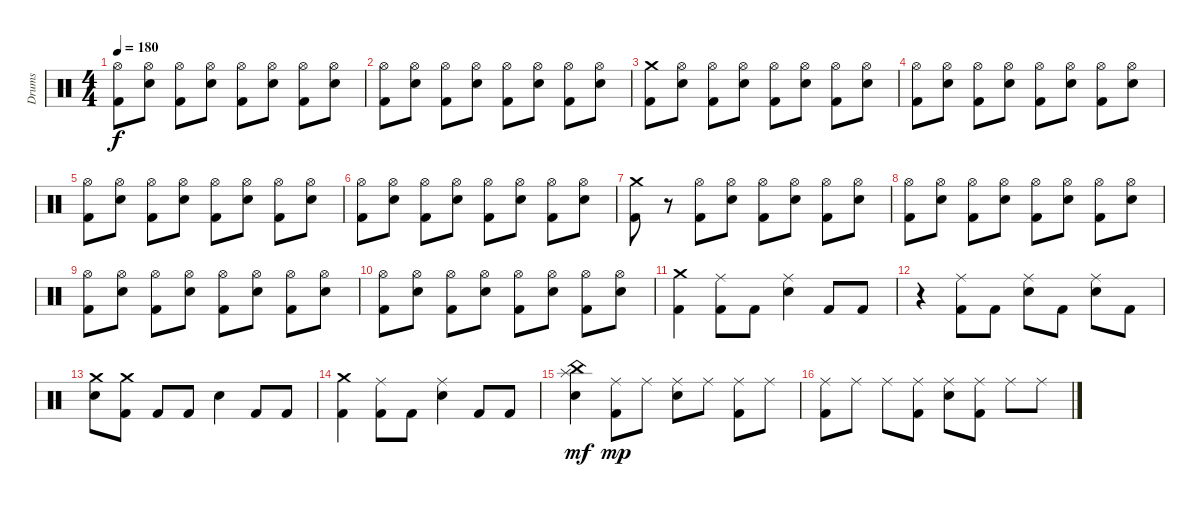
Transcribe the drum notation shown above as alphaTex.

\track ("Drums" "Drums") {instrument percussion}
\staff {score}
\articulation defaults
\ts (4 4)
\tempo 180
\clef neutral
\ks c
("Hi-Hat (open)" "Kick (hit) 2").8{dy f} ("Electric Snare (hit)" "Hi-Hat (open)").8 ("Kick (hit) 2" "Hi-Hat (open)").8 ("Electric Snare (hit)" "Hi-Hat (open)").8 ("Kick (hit) 2" "Hi-Hat (open)").8 ("Electric Snare (hit)" "Hi-Hat (open)").8 ("Kick (hit) 2" "Hi-Hat (open)").8 ("Electric Snare (hit)" "Hi-Hat (open)").8 |
("Hi-Hat (open)" "Kick (hit) 2").8 ("Electric Snare (hit)" "Hi-Hat (open)").8 ("Kick (hit) 2" "Hi-Hat (open)").8 ("Electric Snare (hit)" "Hi-Hat (open)").8 ("Kick (hit) 2" "Hi-Hat (open)").8 ("Electric Snare (hit)" "Hi-Hat (open)").8 ("Kick (hit) 2" "Hi-Hat (open)").8 ("Electric Snare (hit)" "Hi-Hat (open)").8 |
("Crash medium (hit)" "Kick (hit) 2").8 ("Electric Snare (hit)" "Hi-Hat (open)").8 ("Kick (hit) 2" "Hi-Hat (open)").8 ("Electric Snare (hit)" "Hi-Hat (open)").8 ("Kick (hit) 2" "Hi-Hat (open)").8 ("Electric Snare (hit)" "Hi-Hat (open)").8 ("Kick (hit) 2" "Hi-Hat (open)").8 ("Electric Snare (hit)" "Hi-Hat (open)").8 |
("Hi-Hat (open)" "Kick (hit) 2").8 ("Electric Snare (hit)" "Hi-Hat (open)").8 ("Kick (hit) 2" "Hi-Hat (open)").8 ("Electric Snare (hit)" "Hi-Hat (open)").8 ("Kick (hit) 2" "Hi-Hat (open)").8 ("Electric Snare (hit)" "Hi-Hat (open)").8 ("Kick (hit) 2" "Hi-Hat (open)").8 ("Electric Snare (hit)" "Hi-Hat (open)").8 |
("Hi-Hat (open)" "Kick (hit) 2").8 ("Electric Snare (hit)" "Hi-Hat (open)").8 ("Kick (hit) 2" "Hi-Hat (open)").8 ("Electric Snare (hit)" "Hi-Hat (open)").8 ("Kick (hit) 2" "Hi-Hat (open)").8 ("Electric Snare (hit)" "Hi-Hat (open)").8 ("Kick (hit) 2" "Hi-Hat (open)").8 ("Electric Snare (hit)" "Hi-Hat (open)").8 |
("Hi-Hat (open)" "Kick (hit) 2").8 ("Electric Snare (hit)" "Hi-Hat (open)").8 ("Kick (hit) 2" "Hi-Hat (open)").8 ("Electric Snare (hit)" "Hi-Hat (open)").8 ("Kick (hit) 2" "Hi-Hat (open)").8 ("Electric Snare (hit)" "Hi-Hat (open)").8 ("Kick (hit) 2" "Hi-Hat (open)").8 ("Electric Snare (hit)" "Hi-Hat (open)").8 |
("Crash medium (hit)" "Kick (hit) 2").8 r.8 ("Kick (hit) 2" "Hi-Hat (open)").8 ("Electric Snare (hit)" "Hi-Hat (open)").8 ("Kick (hit) 2" "Hi-Hat (open)").8 ("Electric Snare (hit)" "Hi-Hat (open)").8 ("Kick (hit) 2" "Hi-Hat (open)").8 ("Electric Snare (hit)" "Hi-Hat (open)").8 |
("Hi-Hat (open)" "Kick (hit) 2").8 ("Electric Snare (hit)" "Hi-Hat (open)").8 ("Kick (hit) 2" "Hi-Hat (open)").8 ("Electric Snare (hit)" "Hi-Hat (open)").8 ("Kick (hit) 2" "Hi-Hat (open)").8 ("Electric Snare (hit)" "Hi-Hat (open)").8 ("Kick (hit) 2" "Hi-Hat (open)").8 ("Electric Snare (hit)" "Hi-Hat (open)").8 |
("Hi-Hat (open)" "Kick (hit) 2").8 ("Electric Snare (hit)" "Hi-Hat (open)").8 ("Kick (hit) 2" "Hi-Hat (open)").8 ("Electric Snare (hit)" "Hi-Hat (open)").8 ("Kick (hit) 2" "Hi-Hat (open)").8 ("Electric Snare (hit)" "Hi-Hat (open)").8 ("Kick (hit) 2" "Hi-Hat (open)").8 ("Electric Snare (hit)" "Hi-Hat (open)").8 |
("Hi-Hat (open)" "Kick (hit) 2").8 ("Electric Snare (hit)" "Hi-Hat (open)").8 ("Kick (hit) 2" "Hi-Hat (open)").8 ("Electric Snare (hit)" "Hi-Hat (open)").8 ("Kick (hit) 2" "Hi-Hat (open)").8 ("Electric Snare (hit)" "Hi-Hat (open)").8 ("Kick (hit) 2" "Hi-Hat (open)").8 ("Electric Snare (hit)" "Hi-Hat (open)").8 |
("Crash medium (hit)" "Kick (hit) 2").4 ("Kick (hit) 2" "Ride (middle)").8 "Kick (hit) 2".8 ("Electric Snare (hit)" "Ride (middle)").4 "Kick (hit) 2".8 "Kick (hit) 2".8 |
r.4 ("Kick (hit) 2" "Ride (middle)").8 "Kick (hit) 2".8 ("Electric Snare (hit)" "Ride (middle)").8 "Kick (hit) 2".8 ("Electric Snare (hit)" "Ride (middle)").8 "Kick (hit) 2".8 |
("Electric Snare (hit)" "Crash medium (hit)").8 ("Kick (hit) 2" "Crash medium (hit)").8 "Kick (hit) 2".8 "Kick (hit) 2".8 "Electric Snare (hit)".4 "Kick (hit) 2".8 "Kick (hit) 2".8 |
("Crash medium (hit)" "Kick (hit) 2").4 ("Kick (hit) 2" "Ride (middle)").8 "Kick (hit) 2".8 ("Electric Snare (hit)" "Ride (middle)").4 "Kick (hit) 2".8 "Kick (hit) 2".8 |
("Splash (hit)" "Electric Snare (hit)" "China (hit)").4{dy mf} ("Kick (hit) 2" "Ride (middle)").8{dy mp} "Ride (middle)".8 ("Electric Snare (hit)" "Ride (middle)").8 "Ride (middle)".8 ("Kick (hit) 2" "Ride (middle)").8 "Ride (middle)".8 |
("Kick (hit) 2" "Ride (middle)").8 "Ride (middle)".8 "Ride (middle)".8 ("Kick (hit) 2" "Ride (middle)").8 ("Electric Snare (hit)" "Ride (middle)").8 ("Kick (hit) 2" "Ride (middle)").8 "Ride (middle)".8 "Ride (middle)".8
